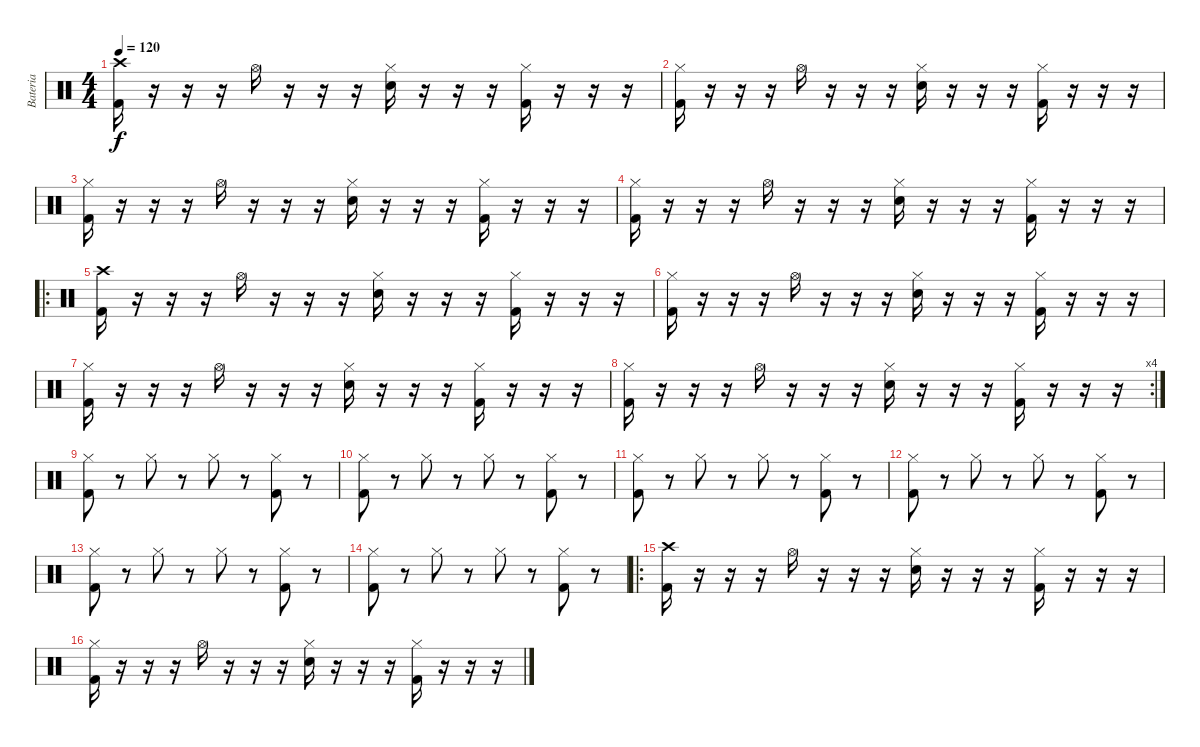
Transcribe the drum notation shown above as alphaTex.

\track ("Bateria" "Bateria") {instrument percussion}
\staff {score}
\articulation defaults
\ts (4 4)
\tempo 120
\clef neutral
\ks c
("Crash high (hit)" "Kick (hit) 2").16{dy f} r.16 r.16 r.16 "Hi-Hat (open)".16 r.16 r.16 r.16 ("Hi-Hat (closed)" "Electric Snare (hit)").16 r.16 r.16 r.16 ("Hi-Hat (closed)" "Kick (hit) 2").16 r.16 r.16 r.16 |
("Hi-Hat (closed)" "Kick (hit) 2").16 r.16 r.16 r.16 "Hi-Hat (open)".16 r.16 r.16 r.16 ("Hi-Hat (closed)" "Electric Snare (hit)").16 r.16 r.16 r.16 ("Hi-Hat (closed)" "Kick (hit) 2").16 r.16 r.16 r.16 |
("Hi-Hat (closed)" "Kick (hit) 2").16 r.16 r.16 r.16 "Hi-Hat (open)".16 r.16 r.16 r.16 ("Hi-Hat (closed)" "Electric Snare (hit)").16 r.16 r.16 r.16 ("Hi-Hat (closed)" "Kick (hit) 2").16 r.16 r.16 r.16 |
("Hi-Hat (closed)" "Kick (hit) 2").16 r.16 r.16 r.16 "Hi-Hat (open)".16 r.16 r.16 r.16 ("Hi-Hat (closed)" "Electric Snare (hit)").16 r.16 r.16 r.16 ("Hi-Hat (closed)" "Kick (hit) 2").16 r.16 r.16 r.16 |
\ro
("Crash high (hit)" "Kick (hit) 2").16 r.16 r.16 r.16 "Hi-Hat (open)".16 r.16 r.16 r.16 ("Hi-Hat (closed)" "Electric Snare (hit)").16 r.16 r.16 r.16 ("Hi-Hat (closed)" "Kick (hit) 2").16 r.16 r.16 r.16 |
("Hi-Hat (closed)" "Kick (hit) 2").16 r.16 r.16 r.16 "Hi-Hat (open)".16 r.16 r.16 r.16 ("Hi-Hat (closed)" "Electric Snare (hit)").16 r.16 r.16 r.16 ("Hi-Hat (closed)" "Kick (hit) 2").16 r.16 r.16 r.16 |
("Hi-Hat (closed)" "Kick (hit) 2").16 r.16 r.16 r.16 "Hi-Hat (open)".16 r.16 r.16 r.16 ("Hi-Hat (closed)" "Electric Snare (hit)").16 r.16 r.16 r.16 ("Hi-Hat (closed)" "Kick (hit) 2").16 r.16 r.16 r.16 |
\rc 4
("Hi-Hat (closed)" "Kick (hit) 2").16 r.16 r.16 r.16 "Hi-Hat (open)".16 r.16 r.16 r.16 ("Hi-Hat (closed)" "Electric Snare (hit)").16 r.16 r.16 r.16 ("Hi-Hat (closed)" "Kick (hit) 2").16 r.16 r.16 r.16 |
("Hi-Hat (closed)" "Kick (hit) 2").8 r.8 "Hi-Hat (closed)".8 r.8 "Hi-Hat (closed)".8 r.8 ("Hi-Hat (closed)" "Kick (hit) 2").8 r.8 |
("Hi-Hat (closed)" "Kick (hit) 2").8 r.8 "Hi-Hat (closed)".8 r.8 "Hi-Hat (closed)".8 r.8 ("Hi-Hat (closed)" "Kick (hit) 2").8 r.8 |
("Hi-Hat (closed)" "Kick (hit) 2").8 r.8 "Hi-Hat (closed)".8 r.8 "Hi-Hat (closed)".8 r.8 ("Hi-Hat (closed)" "Kick (hit) 2").8 r.8 |
("Hi-Hat (closed)" "Kick (hit) 2").8 r.8 "Hi-Hat (closed)".8 r.8 "Hi-Hat (closed)".8 r.8 ("Hi-Hat (closed)" "Kick (hit) 2").8 r.8 |
("Hi-Hat (closed)" "Kick (hit) 2").8 r.8 "Hi-Hat (closed)".8 r.8 "Hi-Hat (closed)".8 r.8 ("Hi-Hat (closed)" "Kick (hit) 2").8 r.8 |
("Hi-Hat (closed)" "Kick (hit) 2").8 r.8 "Hi-Hat (closed)".8 r.8 "Hi-Hat (closed)".8 r.8 ("Hi-Hat (closed)" "Kick (hit) 2").8 r.8 |
\ro
("Crash high (hit)" "Kick (hit) 2").16 r.16 r.16 r.16 "Hi-Hat (open)".16 r.16 r.16 r.16 ("Hi-Hat (closed)" "Electric Snare (hit)").16 r.16 r.16 r.16 ("Hi-Hat (closed)" "Kick (hit) 2").16 r.16 r.16 r.16 |
("Hi-Hat (closed)" "Kick (hit) 2").16 r.16 r.16 r.16 "Hi-Hat (open)".16 r.16 r.16 r.16 ("Hi-Hat (closed)" "Electric Snare (hit)").16 r.16 r.16 r.16 ("Hi-Hat (closed)" "Kick (hit) 2").16 r.16 r.16 r.16
